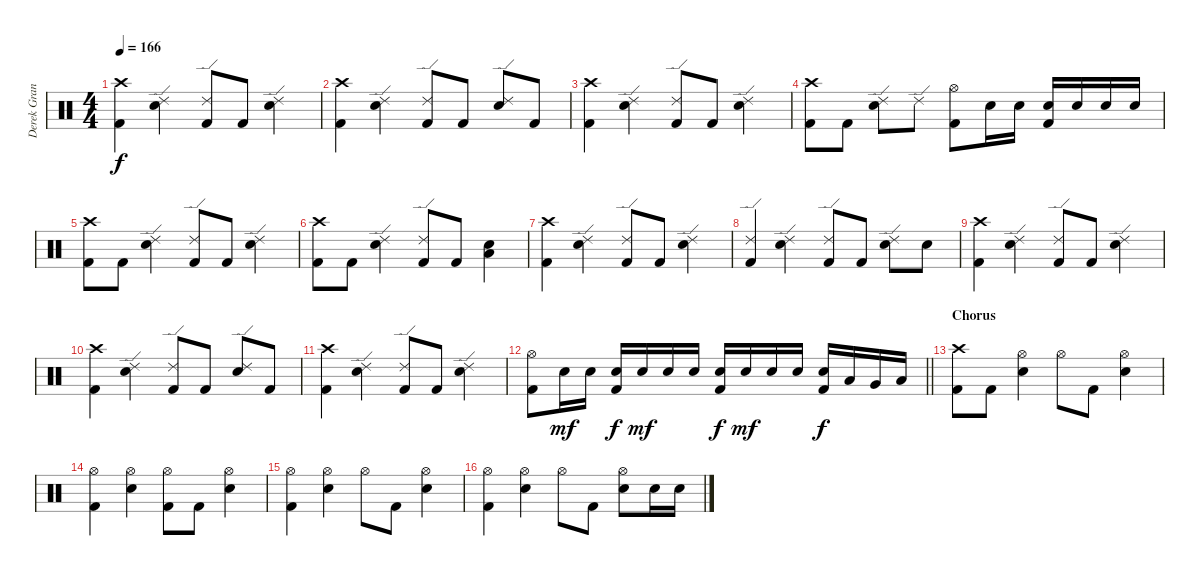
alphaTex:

\track ("Derek Grant - Drums" "Derek Gran") {instrument percussion}
\staff {score}
\articulation defaults
\ts (4 4)
\tempo 166
\clef neutral
\ks c
("Crash high (hit)" "Kick (hit) 2").4{dy f} ("Snare (hit) 2" "Ride (edge) 2").4 ("Kick (hit) 2" "Ride (edge) 2").8 "Kick (hit) 2".8 ("Ride (edge) 2" "Snare (hit) 2").4 |
("Crash high (hit)" "Kick (hit) 2").4 ("Snare (hit) 2" "Ride (edge) 2").4 ("Kick (hit) 2" "Ride (edge) 2").8 "Kick (hit) 2".8 ("Ride (edge) 2" "Snare (hit) 2").8 "Kick (hit) 2".8 |
("Crash high (hit)" "Kick (hit) 2").4 ("Snare (hit) 2" "Ride (edge) 2").4 ("Kick (hit) 2" "Ride (edge) 2").8 "Kick (hit) 2".8 ("Ride (edge) 2" "Snare (hit) 2").4 |
("Crash high (hit)" "Kick (hit) 2").8 "Kick (hit) 2".8 ("Ride (edge) 2" "Snare (hit) 2").8 "Ride (edge) 2".8 ("Hi-Hat (open)" "Kick (hit) 2").8 "Snare (hit) 2".16 "Snare (hit) 2".16 ("Snare (hit) 2" "Kick (hit) 2").16 "Snare (hit) 2".16 "Snare (hit) 2".16 "Snare (hit) 2".16 |
("Crash high (hit)" "Kick (hit) 2").8 "Kick (hit) 2".8 ("Snare (hit) 2" "Ride (edge) 2").4 ("Kick (hit) 2" "Ride (edge) 2").8 "Kick (hit) 2".8 ("Ride (edge) 2" "Snare (hit) 2").4 |
("Crash high (hit)" "Kick (hit) 2").8 "Kick (hit) 2".8 ("Ride (edge) 2" "Snare (hit) 2").4 ("Kick (hit) 2" "Ride (edge) 2").8 "Kick (hit) 2".8 ("Low Floor Tom (hit)" "Snare (hit) 2").4 |
("Crash high (hit)" "Kick (hit) 2").4 ("Ride (edge) 2" "Snare (hit) 2").4 ("Kick (hit) 2" "Ride (edge) 2").8 "Kick (hit) 2".8 ("Ride (edge) 2" "Snare (hit) 2").4 |
("Kick (hit) 2" "Ride (edge) 2").4 ("Ride (edge) 2" "Snare (hit) 2").4 ("Kick (hit) 2" "Ride (edge) 2").8 "Kick (hit) 2".8 ("Ride (edge) 2" "Snare (hit) 2").8 "Snare (hit) 2".8 |
("Crash high (hit)" "Kick (hit) 2").4 ("Snare (hit) 2" "Ride (edge) 2").4 ("Kick (hit) 2" "Ride (edge) 2").8 "Kick (hit) 2".8 ("Ride (edge) 2" "Snare (hit) 2").4 |
("Crash high (hit)" "Kick (hit) 2").4 ("Snare (hit) 2" "Ride (edge) 2").4 ("Kick (hit) 2" "Ride (edge) 2").8 "Kick (hit) 2".8 ("Ride (edge) 2" "Snare (hit) 2").8 "Kick (hit) 2".8 |
("Crash high (hit)" "Kick (hit) 2").4 ("Snare (hit) 2" "Ride (edge) 2").4 ("Kick (hit) 2" "Ride (edge) 2").8 "Kick (hit) 2".8 ("Ride (edge) 2" "Snare (hit) 2").4 |
\barLineRight lightlight
("Hi-Hat (open)" "Kick (hit) 2").8 "Snare (hit) 2".16{dy mf} "Snare (hit) 2".16 ("Snare (hit) 2" "Kick (hit) 2").16{dy f} "Snare (hit) 2".16{dy mf} "Snare (hit) 2".16 "Snare (hit) 2".16 ("Snare (hit) 2" "Kick (hit) 2").16{dy f} "Snare (hit) 2".16{dy mf} "Snare (hit) 2".16 "Snare (hit) 2".16 ("Snare (hit) 2" "Kick (hit) 2").16{dy f} "Low Tom (hit)".16 "Very Low Tom (hit)".16 "Low Floor Tom (hit)".16 |
\section ("" "Chorus")
("Crash high (hit)" "Kick (hit) 2").8 "Kick (hit) 2".8 ("Snare (hit) 2" "Hi-Hat (open)").4 "Hi-Hat (open)".8 "Kick (hit) 2".8 ("Snare (hit) 2" "Hi-Hat (open)").4 |
("Hi-Hat (open)" "Kick (hit) 2").4 ("Snare (hit) 2" "Hi-Hat (open)").4 ("Hi-Hat (open)" "Kick (hit) 2").8 "Kick (hit) 2".8 ("Snare (hit) 2" "Hi-Hat (open)").4 |
("Kick (hit) 2" "Hi-Hat (open)").4 ("Snare (hit) 2" "Hi-Hat (open)").4 "Hi-Hat (open)".8 "Kick (hit) 2".8 ("Snare (hit) 2" "Hi-Hat (open)").4 |
("Hi-Hat (open)" "Kick (hit) 2").4 ("Snare (hit) 2" "Hi-Hat (open)").4 "Hi-Hat (open)".8 "Kick (hit) 2".8 ("Snare (hit) 2" "Hi-Hat (open)").8 "Snare (hit) 2".16 "Snare (hit) 2".16
